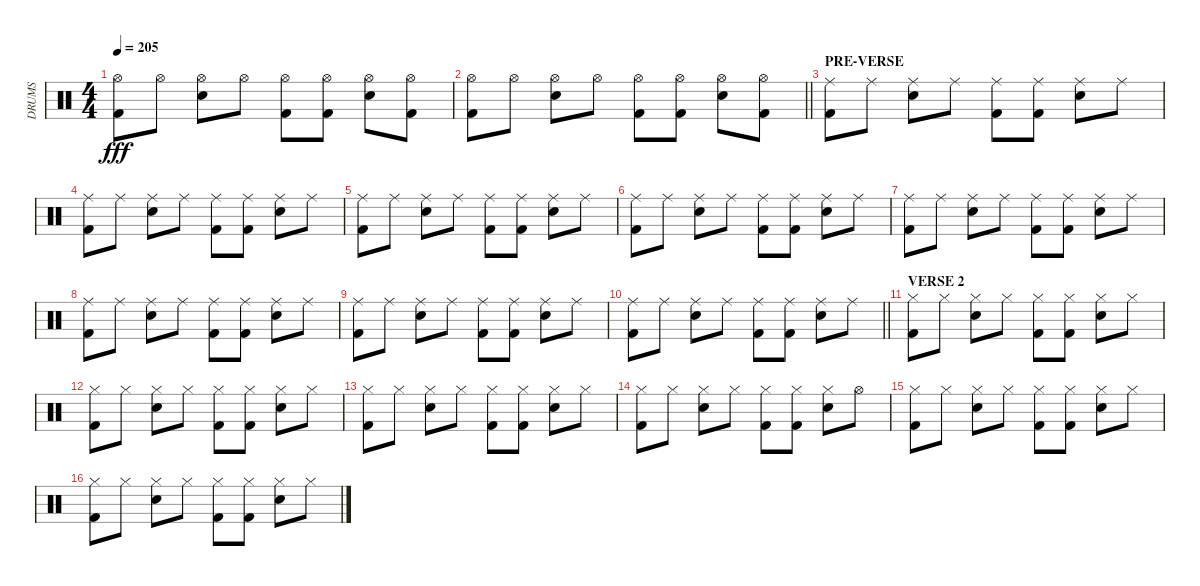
\track ("DRUMS" "DRUMS") {instrument percussion}
\staff {score}
\articulation defaults
\ts (4 4)
\tempo 205
\clef neutral
\ks c
("Hi-Hat (open)" "Kick (hit) 2").8{dy fff} "Hi-Hat (open)".8 ("Hi-Hat (open)" "Electric Snare (hit)").8 "Hi-Hat (open)".8 ("Hi-Hat (open)" "Kick (hit) 2").8 ("Hi-Hat (open)" "Kick (hit) 2").8 ("Hi-Hat (open)" "Electric Snare (hit)").8 ("Hi-Hat (open)" "Kick (hit) 2").8 |
\barLineRight lightlight
("Hi-Hat (open)" "Kick (hit) 2").8 "Hi-Hat (open)".8 ("Hi-Hat (open)" "Electric Snare (hit)").8 "Hi-Hat (open)".8 ("Hi-Hat (open)" "Kick (hit) 2").8 ("Hi-Hat (open)" "Kick (hit) 2").8 ("Hi-Hat (open)" "Electric Snare (hit)").8 ("Hi-Hat (open)" "Kick (hit) 2").8 |
\section ("" "PRE-VERSE")
("Ride (middle)" "Kick (hit) 2").8 "Ride (middle)".8 ("Ride (middle)" "Electric Snare (hit)").8 "Ride (middle)".8 ("Ride (middle)" "Kick (hit) 2").8 ("Ride (middle)" "Kick (hit) 2").8 ("Ride (middle)" "Electric Snare (hit)").8 "Ride (middle)".8 |
("Ride (middle)" "Kick (hit) 2").8 "Ride (middle)".8 ("Ride (middle)" "Electric Snare (hit)").8 "Ride (middle)".8 ("Ride (middle)" "Kick (hit) 2").8 ("Ride (middle)" "Kick (hit) 2").8 ("Ride (middle)" "Electric Snare (hit)").8 "Ride (middle)".8 |
("Ride (middle)" "Kick (hit) 2").8 "Ride (middle)".8 ("Ride (middle)" "Electric Snare (hit)").8 "Ride (middle)".8 ("Ride (middle)" "Kick (hit) 2").8 ("Ride (middle)" "Kick (hit) 2").8 ("Ride (middle)" "Electric Snare (hit)").8 "Ride (middle)".8 |
("Ride (middle)" "Kick (hit) 2").8 "Ride (middle)".8 ("Ride (middle)" "Electric Snare (hit)").8 "Ride (middle)".8 ("Ride (middle)" "Kick (hit) 2").8 ("Ride (middle)" "Kick (hit) 2").8 ("Ride (middle)" "Electric Snare (hit)").8 "Ride (middle)".8 |
("Ride (middle)" "Kick (hit) 2").8 "Ride (middle)".8 ("Ride (middle)" "Electric Snare (hit)").8 "Ride (middle)".8 ("Ride (middle)" "Kick (hit) 2").8 ("Ride (middle)" "Kick (hit) 2").8 ("Ride (middle)" "Electric Snare (hit)").8 "Ride (middle)".8 |
("Ride (middle)" "Kick (hit) 2").8 "Ride (middle)".8 ("Ride (middle)" "Electric Snare (hit)").8 "Ride (middle)".8 ("Ride (middle)" "Kick (hit) 2").8 ("Ride (middle)" "Kick (hit) 2").8 ("Ride (middle)" "Electric Snare (hit)").8 "Ride (middle)".8 |
("Ride (middle)" "Kick (hit) 2").8 "Ride (middle)".8 ("Ride (middle)" "Electric Snare (hit)").8 "Ride (middle)".8 ("Ride (middle)" "Kick (hit) 2").8 ("Ride (middle)" "Kick (hit) 2").8 ("Ride (middle)" "Electric Snare (hit)").8 "Ride (middle)".8 |
\barLineRight lightlight
("Ride (middle)" "Kick (hit) 2").8 "Ride (middle)".8 ("Ride (middle)" "Electric Snare (hit)").8 "Ride (middle)".8 ("Ride (middle)" "Kick (hit) 2").8 ("Ride (middle)" "Kick (hit) 2").8 ("Ride (middle)" "Electric Snare (hit)").8 "Ride (middle)".8 |
\section ("" "VERSE 2")
("Hi-Hat (closed)" "Kick (hit) 2").8 "Hi-Hat (closed)".8 ("Hi-Hat (closed)" "Electric Snare (hit)").8 "Hi-Hat (closed)".8 ("Hi-Hat (closed)" "Kick (hit) 2").8 ("Hi-Hat (closed)" "Kick (hit) 2").8 ("Hi-Hat (closed)" "Electric Snare (hit)").8 "Hi-Hat (closed)".8 |
("Hi-Hat (closed)" "Kick (hit) 2").8 "Hi-Hat (closed)".8 ("Hi-Hat (closed)" "Electric Snare (hit)").8 "Hi-Hat (closed)".8 ("Hi-Hat (closed)" "Kick (hit) 2").8 ("Hi-Hat (closed)" "Kick (hit) 2").8 ("Hi-Hat (closed)" "Electric Snare (hit)").8 "Hi-Hat (closed)".8 |
("Hi-Hat (closed)" "Kick (hit) 2").8 "Hi-Hat (closed)".8 ("Hi-Hat (closed)" "Electric Snare (hit)").8 "Hi-Hat (closed)".8 ("Hi-Hat (closed)" "Kick (hit) 2").8 ("Hi-Hat (closed)" "Kick (hit) 2").8 ("Hi-Hat (closed)" "Electric Snare (hit)").8 "Hi-Hat (closed)".8 |
("Hi-Hat (closed)" "Kick (hit) 2").8 "Hi-Hat (closed)".8 ("Hi-Hat (closed)" "Electric Snare (hit)").8 "Hi-Hat (closed)".8 ("Hi-Hat (closed)" "Kick (hit) 2").8 ("Hi-Hat (closed)" "Kick (hit) 2").8 ("Hi-Hat (closed)" "Electric Snare (hit)").8 "Hi-Hat (open)".8 |
("Hi-Hat (closed)" "Kick (hit) 2").8 "Hi-Hat (closed)".8 ("Hi-Hat (closed)" "Electric Snare (hit)").8 "Hi-Hat (closed)".8 ("Hi-Hat (closed)" "Kick (hit) 2").8 ("Hi-Hat (closed)" "Kick (hit) 2").8 ("Hi-Hat (closed)" "Electric Snare (hit)").8 "Hi-Hat (closed)".8 |
("Hi-Hat (closed)" "Kick (hit) 2").8 "Hi-Hat (closed)".8 ("Hi-Hat (closed)" "Electric Snare (hit)").8 "Hi-Hat (closed)".8 ("Hi-Hat (closed)" "Kick (hit) 2").8 ("Hi-Hat (closed)" "Kick (hit) 2").8 ("Hi-Hat (closed)" "Electric Snare (hit)").8 "Hi-Hat (closed)".8
